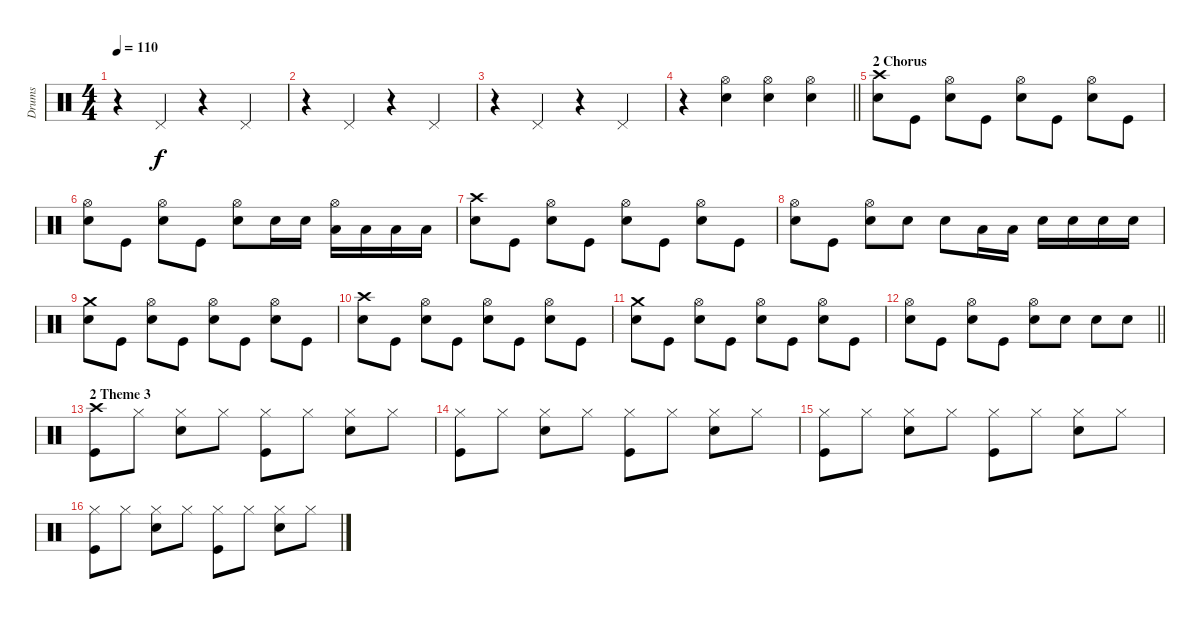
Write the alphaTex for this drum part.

\track ("Drums" "Drums") {instrument percussion}
\staff {score}
\articulation defaults
\ts (4 4)
\tempo 110
\clef neutral
\ks c
r.4{dy f} "Pedal Hi-Hat (hit)".4 r.4 "Pedal Hi-Hat (hit)".4 |
r.4 "Pedal Hi-Hat (hit)".4 r.4 "Pedal Hi-Hat (hit)".4 |
r.4 "Pedal Hi-Hat (hit)".4 r.4 "Pedal Hi-Hat (hit)".4 |
\barLineRight lightlight
r.4 ("Hi-Hat (open)" "Electric Snare (hit)").4 ("Hi-Hat (open)" "Electric Snare (hit)").4 ("Hi-Hat (open)" "Electric Snare (hit)").4 |
\section ("" "2 Chorus")
("Electric Snare (hit)" "Crash high (hit)").8 "Kick (hit)".8 ("Hi-Hat (open)" "Electric Snare (hit)").8 "Kick (hit)".8 ("Hi-Hat (open)" "Electric Snare (hit)").8 "Kick (hit)".8 ("Hi-Hat (open)" "Electric Snare (hit)").8 "Kick (hit)".8 |
("Hi-Hat (open)" "Electric Snare (hit)").8 "Kick (hit)".8 ("Hi-Hat (open)" "Electric Snare (hit)").8 "Kick (hit)".8 ("Hi-Hat (open)" "Electric Snare (hit)").8 "Electric Snare (hit)".16 "Electric Snare (hit)".16 ("Hi-Hat (open)" "Low Tom (hit)").16 "Low Tom (hit)".16 "Low Tom (hit)".16 "Low Tom (hit)".16 |
("Electric Snare (hit)" "Crash high (hit)").8 "Kick (hit)".8 ("Hi-Hat (open)" "Electric Snare (hit)").8 "Kick (hit)".8 ("Hi-Hat (open)" "Electric Snare (hit)").8 "Kick (hit)".8 ("Hi-Hat (open)" "Electric Snare (hit)").8 "Kick (hit)".8 |
("Hi-Hat (open)" "Electric Snare (hit)").8 "Kick (hit)".8 ("Hi-Hat (open)" "Electric Snare (hit)").8 "Electric Snare (hit)".8 "Electric Snare (hit)".8 "Low Tom (hit)".16 "Low Tom (hit)".16 "Electric Snare (hit)".16 "Electric Snare (hit)".16 "Electric Snare (hit)".16 "Electric Snare (hit)".16 |
("Electric Snare (hit)" "Crash medium (hit)").8 "Kick (hit)".8 ("Hi-Hat (open)" "Electric Snare (hit)").8 "Kick (hit)".8 ("Hi-Hat (open)" "Electric Snare (hit)").8 "Kick (hit)".8 ("Hi-Hat (open)" "Electric Snare (hit)").8 "Kick (hit)".8 |
("Electric Snare (hit)" "Crash high (hit)").8 "Kick (hit)".8 ("Hi-Hat (open)" "Electric Snare (hit)").8 "Kick (hit)".8 ("Hi-Hat (open)" "Electric Snare (hit)").8 "Kick (hit)".8 ("Hi-Hat (open)" "Electric Snare (hit)").8 "Kick (hit)".8 |
("Electric Snare (hit)" "Crash medium (hit)").8 "Kick (hit)".8 ("Hi-Hat (open)" "Electric Snare (hit)").8 "Kick (hit)".8 ("Hi-Hat (open)" "Electric Snare (hit)").8 "Kick (hit)".8 ("Hi-Hat (open)" "Electric Snare (hit)").8 "Kick (hit)".8 |
\barLineRight lightlight
("Hi-Hat (open)" "Electric Snare (hit)").8 "Kick (hit)".8 ("Hi-Hat (open)" "Electric Snare (hit)").8 "Kick (hit)".8 ("Hi-Hat (open)" "Electric Snare (hit)").8 "Electric Snare (hit)".8 "Electric Snare (hit)".8 "Electric Snare (hit)".8 |
\section ("" "2 Theme 3")
("Kick (hit)" "Crash high (hit)").8 "Hi-Hat (closed)".8 ("Hi-Hat (closed)" "Electric Snare (hit)").8 "Hi-Hat (closed)".8 ("Kick (hit)" "Hi-Hat (closed)").8 "Hi-Hat (closed)".8 ("Hi-Hat (closed)" "Electric Snare (hit)").8 "Hi-Hat (closed)".8 |
("Kick (hit)" "Hi-Hat (closed)").8 "Hi-Hat (closed)".8 ("Hi-Hat (closed)" "Electric Snare (hit)").8 "Hi-Hat (closed)".8 ("Kick (hit)" "Hi-Hat (closed)").8 "Hi-Hat (closed)".8 ("Hi-Hat (closed)" "Electric Snare (hit)").8 "Hi-Hat (closed)".8 |
("Kick (hit)" "Hi-Hat (closed)").8 "Hi-Hat (closed)".8 ("Hi-Hat (closed)" "Electric Snare (hit)").8 "Hi-Hat (closed)".8 ("Kick (hit)" "Hi-Hat (closed)").8 "Hi-Hat (closed)".8 ("Hi-Hat (closed)" "Electric Snare (hit)").8 "Hi-Hat (closed)".8 |
("Kick (hit)" "Hi-Hat (closed)").8 "Hi-Hat (closed)".8 ("Hi-Hat (closed)" "Electric Snare (hit)").8 "Hi-Hat (closed)".8 ("Kick (hit)" "Hi-Hat (closed)").8 "Hi-Hat (closed)".8 ("Hi-Hat (closed)" "Electric Snare (hit)").8 "Hi-Hat (closed)".8
